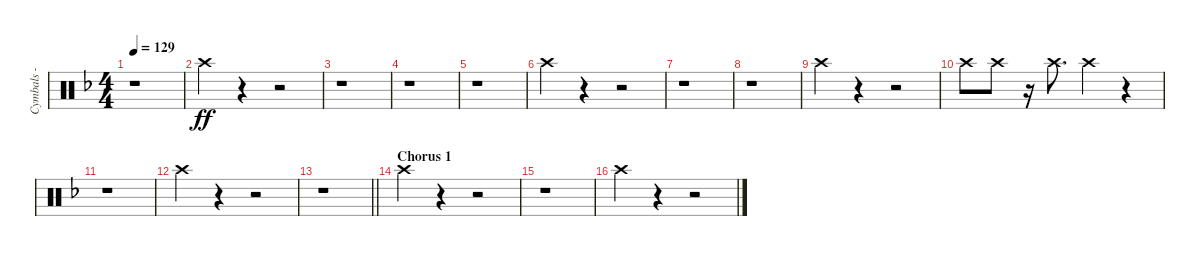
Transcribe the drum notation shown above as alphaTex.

\track ("Cymbals - crash" "Cymbals - ") {instrument percussion}
\staff {score}
\articulation defaults
\ts (4 4)
\tempo 129
\clef neutral
\ks dminor
r.1{dy ff} |
"Crash high (hit)".4 r.4 r.2 |
r.1 |
r.1 |
r.1 |
"Crash high (hit)".4 r.4 r.2 |
r.1 |
r.1 |
"Crash high (hit)".4 r.4 r.2 |
"Crash high (hit)".8 "Crash high (hit)".8 r.16 "Crash high (hit)".8{d} "Crash high (hit)".4 r.4 |
r.1 |
"Crash high (hit)".4 r.4 r.2 |
\barLineRight lightlight
r.1 |
\section ("" "Chorus 1")
"Crash high (hit)".4 r.4 r.2 |
r.1 |
"Crash high (hit)".4 r.4 r.2
